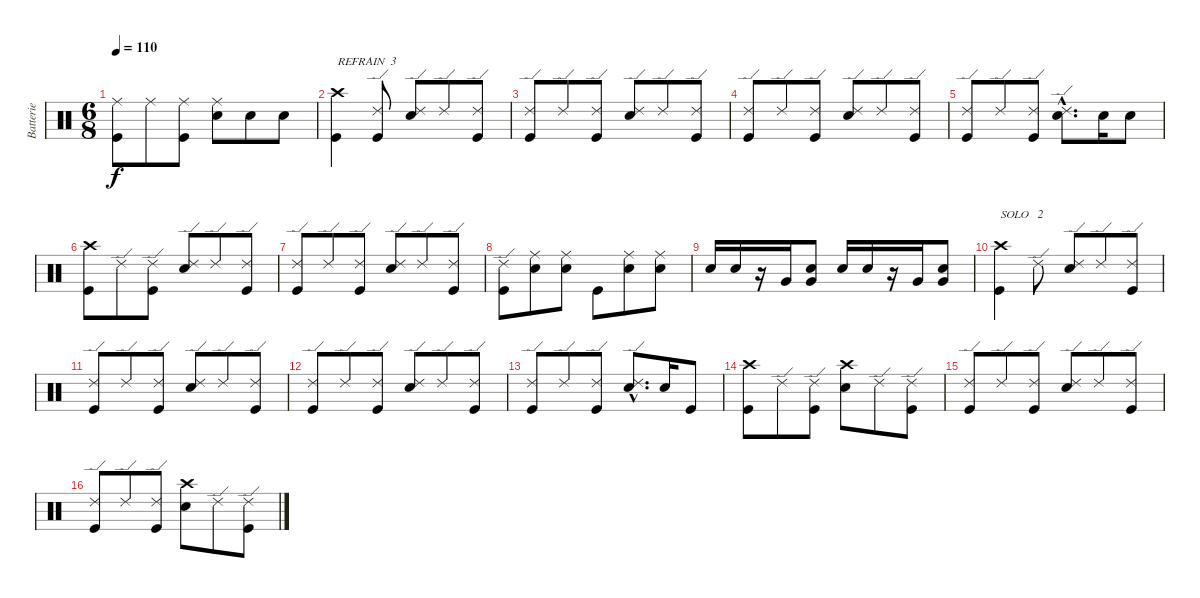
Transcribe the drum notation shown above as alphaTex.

\track ("Batterie" "Batterie") {instrument percussion}
\staff {score}
\articulation defaults
\ts (6 8)
\tempo 110
\clef neutral
\ks c
("Ride (middle)" "Kick (hit)").8{dy f} "Ride (middle)".8 ("Ride (middle)" "Kick (hit)").8 ("Ride (middle)" "Snare (hit) 2").8 "Snare (hit) 2".8 "Snare (hit) 2".8 |
("Crash high (hit)" "Kick (hit)").4{txt "REFRAIN  3"} ("Ride (edge) 2" "Kick (hit)").8 ("Ride (edge) 2" "Snare (hit) 2").8 "Ride (edge) 2".8 ("Ride (edge) 2" "Kick (hit)").8 |
("Ride (edge) 2" "Kick (hit)").8 "Ride (edge) 2".8 ("Ride (edge) 2" "Kick (hit)").8 ("Ride (edge) 2" "Snare (hit) 2").8 "Ride (edge) 2".8 ("Ride (edge) 2" "Kick (hit)").8 |
("Ride (edge) 2" "Kick (hit)").8 "Ride (edge) 2".8 ("Ride (edge) 2" "Kick (hit)").8 ("Ride (edge) 2" "Snare (hit) 2").8 "Ride (edge) 2".8 ("Ride (edge) 2" "Kick (hit)").8 |
("Ride (edge) 2" "Kick (hit)").8 "Ride (edge) 2".8 ("Ride (edge) 2" "Kick (hit)").8 ("Ride (edge) 2"{hac} "Snare (hit) 2"{hac}).8{d} "Snare (hit) 2".16 "Snare (hit) 2".8 |
("Crash high (hit)" "Kick (hit)").8 "Ride (edge) 2".8 ("Ride (edge) 2" "Kick (hit)").8 ("Ride (edge) 2" "Snare (hit) 2").8 "Ride (edge) 2".8 ("Ride (edge) 2" "Kick (hit)").8 |
("Ride (edge) 2" "Kick (hit)").8 "Ride (edge) 2".8 ("Ride (edge) 2" "Kick (hit)").8 ("Ride (edge) 2" "Snare (hit) 2").8 "Ride (edge) 2".8 ("Ride (edge) 2" "Kick (hit)").8 |
("Ride (edge) 2" "Kick (hit)").8 ("Ride (middle)" "Snare (hit) 2").8 ("Ride (middle)" "Snare (hit) 2").8 "Kick (hit)".8 ("Ride (middle)" "Snare (hit) 2").8 ("Ride (middle)" "Snare (hit) 2").8 |
"Snare (hit) 2".16 "Snare (hit) 2".16 r.16 "Very Low Tom (hit)".16 ("Snare (hit) 2" "Very Low Tom (hit)").8 "Snare (hit) 2".16 "Snare (hit) 2".16 r.16 "Very Low Tom (hit)".16 ("Snare (hit) 2" "Very Low Tom (hit)").8 |
("Crash high (hit)" "Kick (hit)").4{txt "SOLO   2"} "Ride (edge) 2".8 ("Ride (edge) 2" "Snare (hit) 2").8 "Ride (edge) 2".8 ("Ride (edge) 2" "Kick (hit)").8 |
("Ride (edge) 2" "Kick (hit)").8 "Ride (edge) 2".8 ("Ride (edge) 2" "Kick (hit)").8 ("Ride (edge) 2" "Snare (hit) 2").8 "Ride (edge) 2".8 ("Ride (edge) 2" "Kick (hit)").8 |
("Ride (edge) 2" "Kick (hit)").8 "Ride (edge) 2".8 ("Ride (edge) 2" "Kick (hit)").8 ("Ride (edge) 2" "Snare (hit) 2").8 "Ride (edge) 2".8 ("Ride (edge) 2" "Kick (hit)").8 |
("Ride (edge) 2" "Kick (hit)").8 "Ride (edge) 2".8 ("Ride (edge) 2" "Kick (hit)").8 ("Ride (edge) 2"{hac} "Snare (hit) 2"{hac}).8{d} "Snare (hit) 2".16 "Kick (hit)".8 |
("Crash high (hit)" "Kick (hit)").8 "Ride (edge) 2".8 ("Ride (edge) 2" "Kick (hit)").8 ("Crash high (hit)" "Snare (hit) 2").8 "Ride (edge) 2".8 ("Ride (edge) 2" "Kick (hit)").8 |
("Ride (edge) 2" "Kick (hit)").8 "Ride (edge) 2".8 ("Ride (edge) 2" "Kick (hit)").8 ("Ride (edge) 2" "Snare (hit) 2").8 "Ride (edge) 2".8 ("Ride (edge) 2" "Kick (hit)").8 |
("Ride (edge) 2" "Kick (hit)").8 "Ride (edge) 2".8 ("Ride (edge) 2" "Kick (hit)").8 ("Crash high (hit)" "Snare (hit) 2").8 "Ride (edge) 2".8 ("Ride (edge) 2" "Kick (hit)").8
